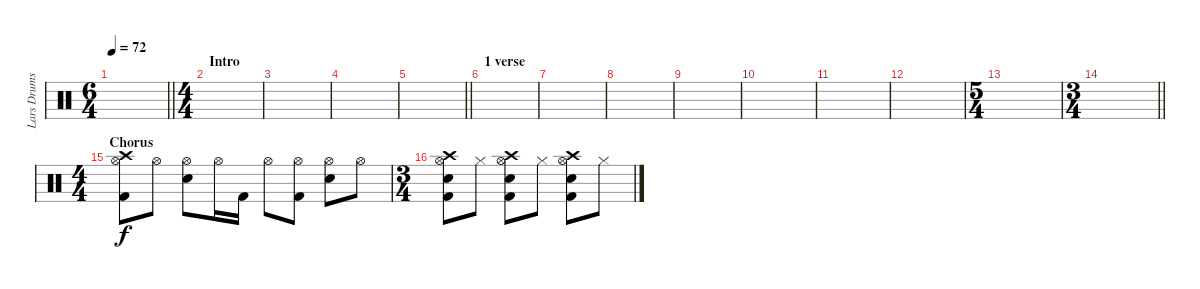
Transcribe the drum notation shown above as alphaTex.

\track ("Lars Drums" "Lars Drums") {instrument percussion}
\staff {score}
\articulation defaults
\ts (6 4)
\tempo 72
\clef neutral
\barLineRight lightlight
\ks c
|
\ts (4 4)
\section ("" "Intro")
|
|
|
\barLineRight lightlight
|
\section ("" "1 verse")
|
|
|
|
|
|
|
\ts (5 4)
|
\ts (3 4)
\barLineRight lightlight
|
\ts (4 4)
\section ("" "Chorus")
("Kick (hit) 2" "Hi-Hat (open)" "Crash high (hit)").8 "Hi-Hat (open)".8 ("Snare (hit) 2" "Hi-Hat (open)").8 "Hi-Hat (open)".16 "Kick (hit) 2".16 "Hi-Hat (open)".8 ("Kick (hit) 2" "Hi-Hat (open)").8 ("Snare (hit) 2" "Hi-Hat (open)").8 "Hi-Hat (open)".8 |
\ts (3 4)
("Kick (hit) 2" "Snare (hit) 2" "Hi-Hat (open)" "Crash high (hit)").8 "Hi-Hat (closed)".8 ("Kick (hit) 2" "Snare (hit) 2" "Hi-Hat (open)" "Crash high (hit)").8 "Hi-Hat (closed)".8 ("Kick (hit) 2" "Snare (hit) 2" "Hi-Hat (open)" "Crash high (hit)").8 "Hi-Hat (closed)".8
